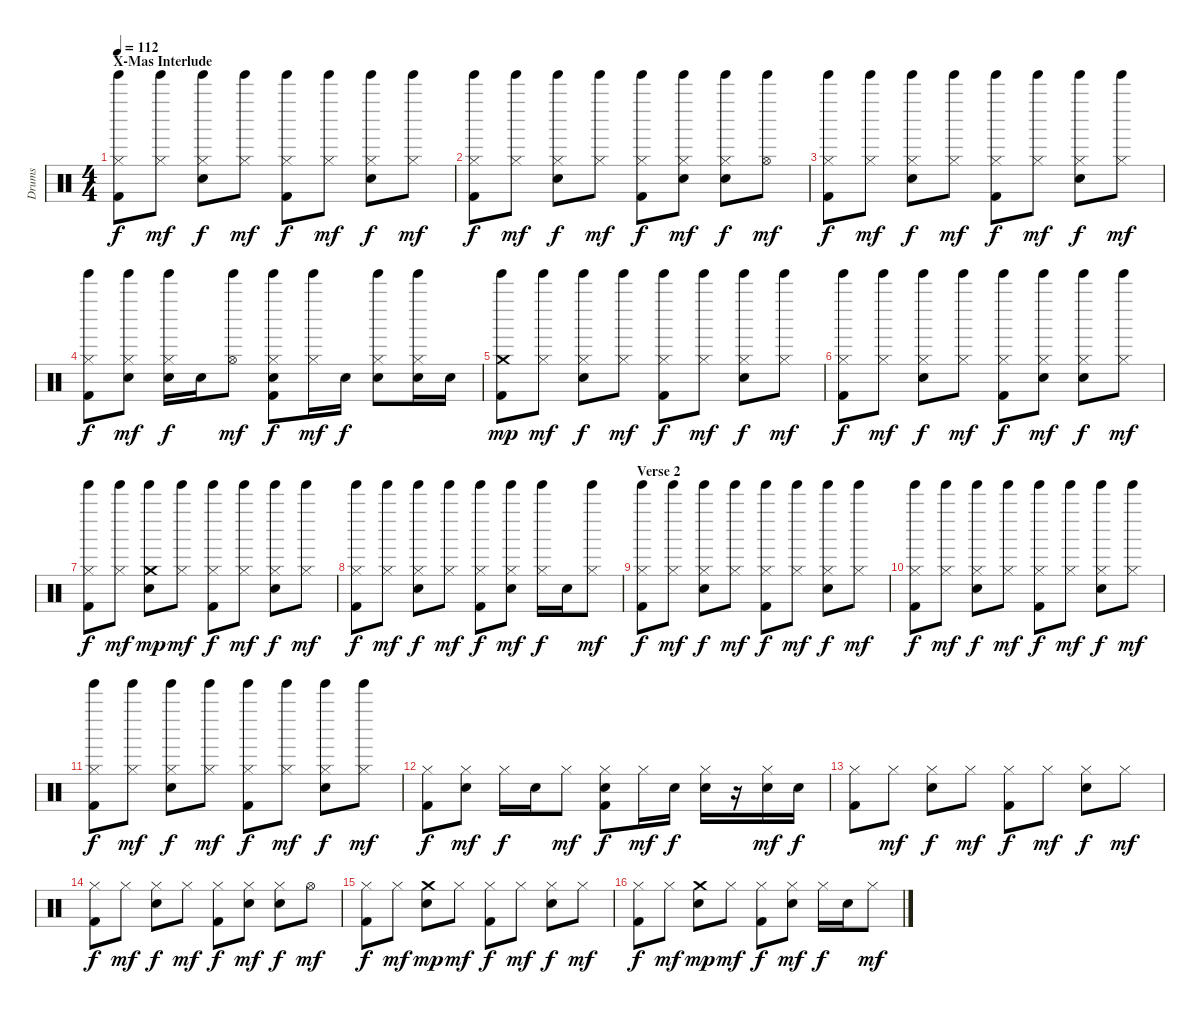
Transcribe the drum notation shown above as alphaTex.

\track ("Drums" "Drums") {instrument percussion}
\staff {score}
\articulation defaults
\ts (4 4)
\section ("" "X-Mas Interlude")
\tempo 112
\clef neutral
\ks c
("Hi-Hat (closed)" "Tinkle Bell (hit)" "Kick (hit) 2").8{dy f} ("Hi-Hat (closed)" "Tinkle Bell (hit)").8{dy mf} ("Hi-Hat (closed)" "Tinkle Bell (hit)" "Snare (hit) 2").8{dy f} ("Hi-Hat (closed)" "Tinkle Bell (hit)").8{dy mf} ("Hi-Hat (closed)" "Tinkle Bell (hit)" "Kick (hit) 2").8{dy f} ("Hi-Hat (closed)" "Tinkle Bell (hit)").8{dy mf} ("Hi-Hat (closed)" "Tinkle Bell (hit)" "Snare (hit) 2").8{dy f} ("Hi-Hat (closed)" "Tinkle Bell (hit)").8{dy mf} |
("Hi-Hat (closed)" "Tinkle Bell (hit)" "Kick (hit) 2").8{dy f} ("Hi-Hat (closed)" "Tinkle Bell (hit)").8{dy mf} ("Hi-Hat (closed)" "Tinkle Bell (hit)" "Snare (hit) 2").8{dy f} ("Hi-Hat (closed)" "Tinkle Bell (hit)").8{dy mf} ("Hi-Hat (closed)" "Tinkle Bell (hit)" "Kick (hit) 2").8{dy f} ("Hi-Hat (closed)" "Tinkle Bell (hit)" "Snare (hit) 2").8{dy mf} ("Hi-Hat (closed)" "Tinkle Bell (hit)" "Snare (hit) 2").8{dy f} ("Hi-Hat (open)" "Tinkle Bell (hit)").8{dy mf} |
("Hi-Hat (closed)" "Tinkle Bell (hit)" "Kick (hit) 2").8{dy f} ("Hi-Hat (closed)" "Tinkle Bell (hit)").8{dy mf} ("Hi-Hat (closed)" "Tinkle Bell (hit)" "Snare (hit) 2").8{dy f} ("Hi-Hat (closed)" "Tinkle Bell (hit)").8{dy mf} ("Hi-Hat (closed)" "Tinkle Bell (hit)" "Kick (hit) 2").8{dy f} ("Hi-Hat (closed)" "Tinkle Bell (hit)").8{dy mf} ("Hi-Hat (closed)" "Tinkle Bell (hit)" "Snare (hit) 2").8{dy f} ("Hi-Hat (closed)" "Tinkle Bell (hit)").8{dy mf} |
("Hi-Hat (closed)" "Tinkle Bell (hit)" "Kick (hit) 2").8{dy f} ("Hi-Hat (closed)" "Tinkle Bell (hit)" "Snare (hit) 2").8{dy mf} ("Hi-Hat (closed)" "Tinkle Bell (hit)" "Snare (hit) 2").16{dy f} "Snare (hit) 2".16 ("Hi-Hat (open)" "Tinkle Bell (hit)").8{dy mf} ("Hi-Hat (closed)" "Tinkle Bell (hit)" "Snare (hit) 2" "Kick (hit) 2").8{dy f} ("Hi-Hat (closed)" "Tinkle Bell (hit)").16{dy mf} "Snare (hit) 2".16{dy f} ("Hi-Hat (closed)" "Tinkle Bell (hit)" "Snare (hit) 2").8 ("Hi-Hat (closed)" "Tinkle Bell (hit)" "Snare (hit) 2").16 "Snare (hit) 2".16 |
("Crash medium (hit)" "Tinkle Bell (hit)" "Kick (hit) 2").8{dy mp} ("Hi-Hat (closed)" "Tinkle Bell (hit)").8{dy mf} ("Hi-Hat (closed)" "Tinkle Bell (hit)" "Snare (hit) 2").8{dy f} ("Hi-Hat (closed)" "Tinkle Bell (hit)").8{dy mf} ("Hi-Hat (closed)" "Tinkle Bell (hit)" "Kick (hit) 2").8{dy f} ("Hi-Hat (closed)" "Tinkle Bell (hit)").8{dy mf} ("Hi-Hat (closed)" "Tinkle Bell (hit)" "Snare (hit) 2").8{dy f} ("Hi-Hat (closed)" "Tinkle Bell (hit)").8{dy mf} |
("Hi-Hat (closed)" "Tinkle Bell (hit)" "Kick (hit) 2").8{dy f} ("Hi-Hat (closed)" "Tinkle Bell (hit)").8{dy mf} ("Hi-Hat (closed)" "Tinkle Bell (hit)" "Snare (hit) 2").8{dy f} ("Hi-Hat (closed)" "Tinkle Bell (hit)").8{dy mf} ("Hi-Hat (closed)" "Tinkle Bell (hit)" "Kick (hit) 2").8{dy f} ("Hi-Hat (closed)" "Tinkle Bell (hit)" "Snare (hit) 2").8{dy mf} ("Hi-Hat (closed)" "Tinkle Bell (hit)" "Snare (hit) 2").8{dy f} ("Hi-Hat (closed)" "Tinkle Bell (hit)").8{dy mf} |
("Hi-Hat (closed)" "Tinkle Bell (hit)" "Kick (hit) 2").8{dy f} ("Hi-Hat (closed)" "Tinkle Bell (hit)").8{dy mf} ("Crash medium (hit)" "Tinkle Bell (hit)" "Snare (hit) 2").8{dy mp} ("Hi-Hat (closed)" "Tinkle Bell (hit)").8{dy mf} ("Hi-Hat (closed)" "Tinkle Bell (hit)" "Kick (hit) 2").8{dy f} ("Hi-Hat (closed)" "Tinkle Bell (hit)").8{dy mf} ("Hi-Hat (closed)" "Tinkle Bell (hit)" "Snare (hit) 2").8{dy f} ("Hi-Hat (closed)" "Tinkle Bell (hit)").8{dy mf} |
("Hi-Hat (closed)" "Tinkle Bell (hit)" "Kick (hit) 2").8{dy f} ("Hi-Hat (closed)" "Tinkle Bell (hit)").8{dy mf} ("Hi-Hat (closed)" "Tinkle Bell (hit)" "Snare (hit) 2").8{dy f} ("Hi-Hat (closed)" "Tinkle Bell (hit)").8{dy mf} ("Hi-Hat (closed)" "Tinkle Bell (hit)" "Kick (hit) 2").8{dy f} ("Hi-Hat (closed)" "Tinkle Bell (hit)" "Snare (hit) 2").8{dy mf} ("Hi-Hat (closed)" "Tinkle Bell (hit)").16{dy f} "Snare (hit) 2".16 ("Hi-Hat (closed)" "Tinkle Bell (hit)").8{dy mf} |
\section ("" "Verse 2")
("Hi-Hat (closed)" "Tinkle Bell (hit)" "Kick (hit) 2").8{dy f} ("Hi-Hat (closed)" "Tinkle Bell (hit)").8{dy mf} ("Hi-Hat (closed)" "Tinkle Bell (hit)" "Snare (hit) 2").8{dy f} ("Hi-Hat (closed)" "Tinkle Bell (hit)").8{dy mf} ("Hi-Hat (closed)" "Tinkle Bell (hit)" "Kick (hit) 2").8{dy f} ("Hi-Hat (closed)" "Tinkle Bell (hit)").8{dy mf} ("Hi-Hat (closed)" "Tinkle Bell (hit)" "Snare (hit) 2").8{dy f} ("Hi-Hat (closed)" "Tinkle Bell (hit)").8{dy mf} |
("Hi-Hat (closed)" "Tinkle Bell (hit)" "Kick (hit) 2").8{dy f} ("Hi-Hat (closed)" "Tinkle Bell (hit)").8{dy mf} ("Hi-Hat (closed)" "Tinkle Bell (hit)" "Snare (hit) 2").8{dy f} ("Hi-Hat (closed)" "Tinkle Bell (hit)").8{dy mf} ("Hi-Hat (closed)" "Tinkle Bell (hit)" "Kick (hit) 2").8{dy f} ("Hi-Hat (closed)" "Tinkle Bell (hit)").8{dy mf} ("Hi-Hat (closed)" "Tinkle Bell (hit)" "Snare (hit) 2").8{dy f} ("Hi-Hat (closed)" "Tinkle Bell (hit)").8{dy mf} |
("Hi-Hat (closed)" "Tinkle Bell (hit)" "Kick (hit) 2").8{dy f} ("Hi-Hat (closed)" "Tinkle Bell (hit)").8{dy mf} ("Hi-Hat (closed)" "Tinkle Bell (hit)" "Snare (hit) 2").8{dy f} ("Hi-Hat (closed)" "Tinkle Bell (hit)").8{dy mf} ("Hi-Hat (closed)" "Tinkle Bell (hit)" "Kick (hit) 2").8{dy f} ("Hi-Hat (closed)" "Tinkle Bell (hit)").8{dy mf} ("Hi-Hat (closed)" "Tinkle Bell (hit)" "Snare (hit) 2").8{dy f} ("Hi-Hat (closed)" "Tinkle Bell (hit)").8{dy mf} |
("Hi-Hat (closed)" "Kick (hit) 2").8{dy f} ("Hi-Hat (closed)" "Snare (hit) 2").8{dy mf} "Hi-Hat (closed)".16{dy f} "Snare (hit) 2".16 "Hi-Hat (closed)".8{dy mf} ("Hi-Hat (closed)" "Snare (hit) 2" "Kick (hit) 2").8{dy f} "Hi-Hat (closed)".16{dy mf} "Snare (hit) 2".16{dy f} ("Hi-Hat (closed)" "Snare (hit) 2").16 r.16 ("Hi-Hat (closed)" "Snare (hit) 2").16{dy mf} "Snare (hit) 2".16{dy f} |
("Hi-Hat (closed)" "Kick (hit) 2").8 "Hi-Hat (closed)".8{dy mf} ("Hi-Hat (closed)" "Snare (hit) 2").8{dy f} "Hi-Hat (closed)".8{dy mf} ("Hi-Hat (closed)" "Kick (hit) 2").8{dy f} "Hi-Hat (closed)".8{dy mf} ("Hi-Hat (closed)" "Snare (hit) 2").8{dy f} "Hi-Hat (closed)".8{dy mf} |
("Hi-Hat (closed)" "Kick (hit) 2").8{dy f} "Hi-Hat (closed)".8{dy mf} ("Hi-Hat (closed)" "Snare (hit) 2").8{dy f} "Hi-Hat (closed)".8{dy mf} ("Hi-Hat (closed)" "Kick (hit) 2").8{dy f} ("Hi-Hat (closed)" "Snare (hit) 2").8{dy mf} ("Hi-Hat (closed)" "Snare (hit) 2").8{dy f} "Hi-Hat (open)".8{dy mf} |
("Hi-Hat (closed)" "Kick (hit) 2").8{dy f} "Hi-Hat (closed)".8{dy mf} ("Crash medium (hit)" "Snare (hit) 2").8{dy mp} "Hi-Hat (closed)".8{dy mf} ("Hi-Hat (closed)" "Kick (hit) 2").8{dy f} "Hi-Hat (closed)".8{dy mf} ("Hi-Hat (closed)" "Snare (hit) 2").8{dy f} "Hi-Hat (closed)".8{dy mf} |
("Hi-Hat (closed)" "Kick (hit) 2").8{dy f} "Hi-Hat (closed)".8{dy mf} ("Crash medium (hit)" "Snare (hit) 2").8{dy mp} "Hi-Hat (closed)".8{dy mf} ("Hi-Hat (closed)" "Kick (hit) 2").8{dy f} ("Hi-Hat (closed)" "Snare (hit) 2").8{dy mf} "Hi-Hat (closed)".16{dy f} "Snare (hit) 2".16 "Hi-Hat (closed)".8{dy mf}
